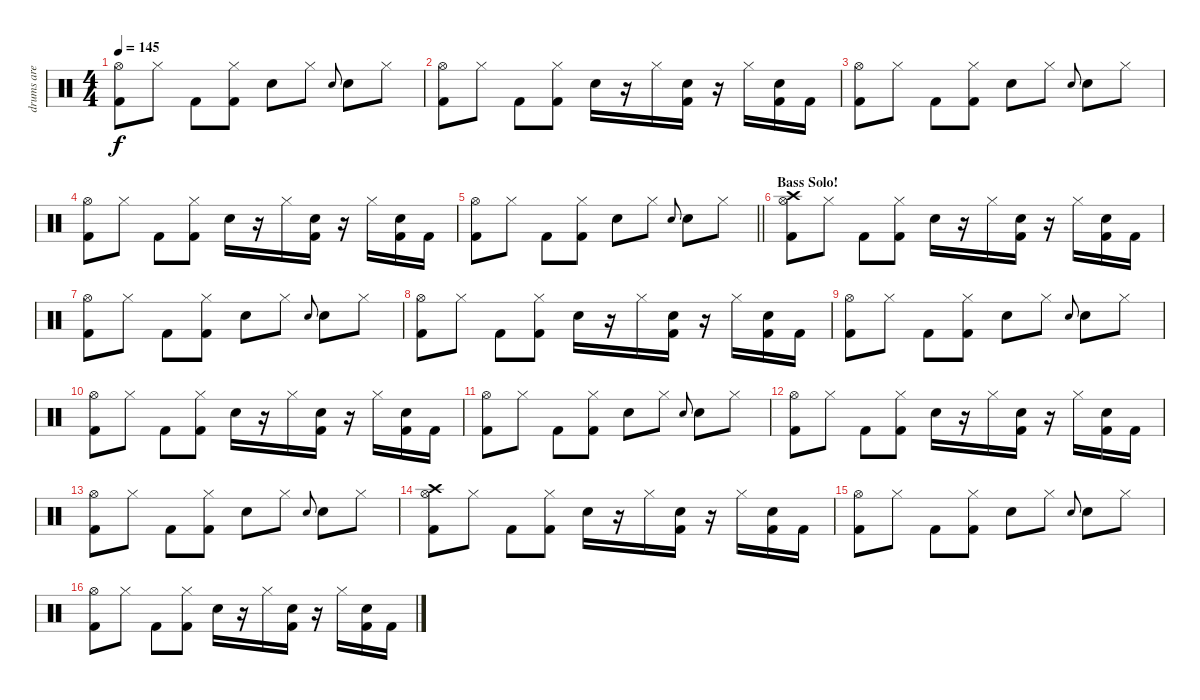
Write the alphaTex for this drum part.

\track ("drums are cool   >.<" "drums are ") {instrument percussion}
\staff {score}
\articulation defaults
\ts (4 4)
\tempo 145
\clef neutral
\ks c
("Hi-Hat (open)" "Kick (hit) 2").8{dy f} "Hi-Hat (closed)".8 "Kick (hit) 2".8 ("Hi-Hat (closed)" "Kick (hit) 2").8 "Snare (hit) 2".8 "Hi-Hat (closed)".8 "Snare (hit) 2".8{gr onbeat} "Snare (hit) 2".8 "Hi-Hat (closed)".8 |
("Hi-Hat (open)" "Kick (hit) 2").8 "Hi-Hat (closed)".8 "Kick (hit) 2".8 ("Hi-Hat (closed)" "Kick (hit) 2").8 "Snare (hit) 2".16 r.16 "Hi-Hat (closed)".16 ("Snare (hit) 2" "Kick (hit) 2").16 r.16 "Hi-Hat (closed)".16 ("Snare (hit) 2" "Kick (hit) 2").16 "Kick (hit) 2".16 |
("Hi-Hat (open)" "Kick (hit) 2").8 "Hi-Hat (closed)".8 "Kick (hit) 2".8 ("Hi-Hat (closed)" "Kick (hit) 2").8 "Snare (hit) 2".8 "Hi-Hat (closed)".8 "Snare (hit) 2".8{gr onbeat} "Snare (hit) 2".8 "Hi-Hat (closed)".8 |
("Hi-Hat (open)" "Kick (hit) 2").8 "Hi-Hat (closed)".8 "Kick (hit) 2".8 ("Hi-Hat (closed)" "Kick (hit) 2").8 "Snare (hit) 2".16 r.16 "Hi-Hat (closed)".16 ("Snare (hit) 2" "Kick (hit) 2").16 r.16 "Hi-Hat (closed)".16 ("Snare (hit) 2" "Kick (hit) 2").16 "Kick (hit) 2".16 |
\barLineRight lightlight
("Hi-Hat (open)" "Kick (hit) 2").8 "Hi-Hat (closed)".8 "Kick (hit) 2".8 ("Hi-Hat (closed)" "Kick (hit) 2").8 "Snare (hit) 2".8 "Hi-Hat (closed)".8 "Snare (hit) 2".8{gr onbeat} "Snare (hit) 2".8 "Hi-Hat (closed)".8 |
\section ("" "Bass Solo!")
("Crash high (hit)" "Hi-Hat (open)" "Kick (hit) 2").8 "Hi-Hat (closed)".8 "Kick (hit) 2".8 ("Hi-Hat (closed)" "Kick (hit) 2").8 "Snare (hit) 2".16 r.16 "Hi-Hat (closed)".16 ("Snare (hit) 2" "Kick (hit) 2").16 r.16 "Hi-Hat (closed)".16 ("Snare (hit) 2" "Kick (hit) 2").16 "Kick (hit) 2".16 |
("Hi-Hat (open)" "Kick (hit) 2").8 "Hi-Hat (closed)".8 "Kick (hit) 2".8 ("Hi-Hat (closed)" "Kick (hit) 2").8 "Snare (hit) 2".8 "Hi-Hat (closed)".8 "Snare (hit) 2".8{gr onbeat} "Snare (hit) 2".8 "Hi-Hat (closed)".8 |
("Hi-Hat (open)" "Kick (hit) 2").8 "Hi-Hat (closed)".8 "Kick (hit) 2".8 ("Hi-Hat (closed)" "Kick (hit) 2").8 "Snare (hit) 2".16 r.16 "Hi-Hat (closed)".16 ("Snare (hit) 2" "Kick (hit) 2").16 r.16 "Hi-Hat (closed)".16 ("Snare (hit) 2" "Kick (hit) 2").16 "Kick (hit) 2".16 |
("Hi-Hat (open)" "Kick (hit) 2").8 "Hi-Hat (closed)".8 "Kick (hit) 2".8 ("Hi-Hat (closed)" "Kick (hit) 2").8 "Snare (hit) 2".8 "Hi-Hat (closed)".8 "Snare (hit) 2".8{gr onbeat} "Snare (hit) 2".8 "Hi-Hat (closed)".8 |
("Hi-Hat (open)" "Kick (hit) 2").8 "Hi-Hat (closed)".8 "Kick (hit) 2".8 ("Hi-Hat (closed)" "Kick (hit) 2").8 "Snare (hit) 2".16 r.16 "Hi-Hat (closed)".16 ("Snare (hit) 2" "Kick (hit) 2").16 r.16 "Hi-Hat (closed)".16 ("Snare (hit) 2" "Kick (hit) 2").16 "Kick (hit) 2".16 |
("Hi-Hat (open)" "Kick (hit) 2").8 "Hi-Hat (closed)".8 "Kick (hit) 2".8 ("Hi-Hat (closed)" "Kick (hit) 2").8 "Snare (hit) 2".8 "Hi-Hat (closed)".8 "Snare (hit) 2".8{gr onbeat} "Snare (hit) 2".8 "Hi-Hat (closed)".8 |
("Hi-Hat (open)" "Kick (hit) 2").8 "Hi-Hat (closed)".8 "Kick (hit) 2".8 ("Hi-Hat (closed)" "Kick (hit) 2").8 "Snare (hit) 2".16 r.16 "Hi-Hat (closed)".16 ("Snare (hit) 2" "Kick (hit) 2").16 r.16 "Hi-Hat (closed)".16 ("Snare (hit) 2" "Kick (hit) 2").16 "Kick (hit) 2".16 |
("Hi-Hat (open)" "Kick (hit) 2").8 "Hi-Hat (closed)".8 "Kick (hit) 2".8 ("Hi-Hat (closed)" "Kick (hit) 2").8 "Snare (hit) 2".8 "Hi-Hat (closed)".8 "Snare (hit) 2".8{gr onbeat} "Snare (hit) 2".8 "Hi-Hat (closed)".8 |
("Crash high (hit)" "Hi-Hat (open)" "Kick (hit) 2").8 "Hi-Hat (closed)".8 "Kick (hit) 2".8 ("Hi-Hat (closed)" "Kick (hit) 2").8 "Snare (hit) 2".16 r.16 "Hi-Hat (closed)".16 ("Snare (hit) 2" "Kick (hit) 2").16 r.16 "Hi-Hat (closed)".16 ("Snare (hit) 2" "Kick (hit) 2").16 "Kick (hit) 2".16 |
("Hi-Hat (open)" "Kick (hit) 2").8 "Hi-Hat (closed)".8 "Kick (hit) 2".8 ("Hi-Hat (closed)" "Kick (hit) 2").8 "Snare (hit) 2".8 "Hi-Hat (closed)".8 "Snare (hit) 2".8{gr onbeat} "Snare (hit) 2".8 "Hi-Hat (closed)".8 |
("Hi-Hat (open)" "Kick (hit) 2").8 "Hi-Hat (closed)".8 "Kick (hit) 2".8 ("Hi-Hat (closed)" "Kick (hit) 2").8 "Snare (hit) 2".16 r.16 "Hi-Hat (closed)".16 ("Snare (hit) 2" "Kick (hit) 2").16 r.16 "Hi-Hat (closed)".16 ("Snare (hit) 2" "Kick (hit) 2").16 "Kick (hit) 2".16
